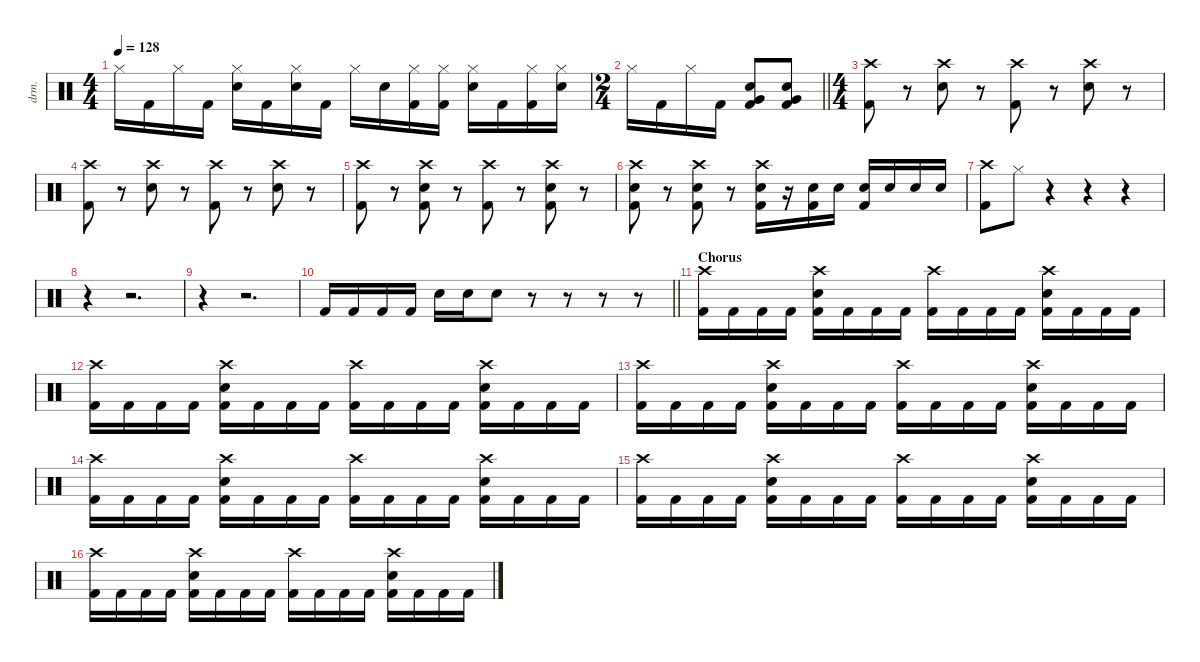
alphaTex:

\defaultSystemsLayout 4
\hideDynamics
\bracketExtendMode nobrackets
\otherSystemsTrackNameOrientation horizontal
\track ("Drums" "drm.") {instrument percussion}
\staff {score}
\articulation defaults
\ts (4 4)
\tempo 128
\clef neutral
\ks c "Hi-Hat (closed)".16{dy f beam Down} "Kick (hit) 2".16{beam Down} "Hi-Hat (closed)".16{beam Down} "Kick (hit) 2".16{beam Down}
("Hi-Hat (closed)" "Snare (hit) 2").16{beam Down} "Kick (hit) 2".16{beam Down} ("Hi-Hat (closed)" "Snare (hit) 2").16{beam Down} "Kick (hit) 2".16{beam Down} "Hi-Hat (closed)".16{beam Down} "Snare (hit) 2".16{beam Down} ("Hi-Hat (closed)" "Kick (hit) 2").16{beam Down} ("Hi-Hat (closed)" "Kick (hit) 2").16{beam Down} ("Hi-Hat (closed)" "Snare (hit) 2").16{beam Down} "Kick (hit) 2".16{beam Down} ("Hi-Hat (closed)" "Kick (hit) 2").16{beam Down} ("Hi-Hat (closed)" "Snare (hit) 2").16{beam Down} |
\ts (2 4)
\barLineRight lightlight "Hi-Hat (closed)".16{beam Down} "Kick (hit) 2".16{beam Down} "Hi-Hat (closed)".16{beam Down} "Kick (hit) 2".16{beam Down}
("Very Low Tom (hit)" "Snare (hit) 2" "Kick (hit) 2").8{beam Up} ("Very Low Tom (hit)" "Snare (hit) 2" "Kick (hit) 2").8{beam Up} |
\ts (4 4)
("Crash high (hit)" "Kick (hit) 2").8{beam Down} r.8{beam Down} ("Crash high (hit)" "Snare (hit) 2").8{beam Down} r.8{beam Down} ("Crash high (hit)" "Kick (hit) 2").8{beam Down} r.8{beam Down} ("Crash high (hit)" "Snare (hit) 2").8{beam Down} r.8{beam Down} |
("Crash high (hit)" "Kick (hit) 2").8{beam Down} r.8{beam Down} ("Crash high (hit)" "Snare (hit) 2").8{beam Down} r.8{beam Down} ("Crash high (hit)" "Kick (hit) 2").8{beam Down} r.8{beam Down} ("Crash high (hit)" "Snare (hit) 2").8{beam Down} r.8{beam Down} |
("Crash high (hit)" "Kick (hit) 2").8{beam Down} r.8{beam Down} ("Crash high (hit)" "Snare (hit) 2" "Kick (hit) 2").8{beam Down} r.8{beam Down} ("Crash high (hit)" "Kick (hit) 2").8{beam Down} r.8{beam Down} ("Crash high (hit)" "Snare (hit) 2" "Kick (hit) 2").8{beam Down} r.8{beam Down} |
("Crash high (hit)" "Snare (hit) 2" "Kick (hit) 2").8{beam Down} r.8{beam Down} ("Crash high (hit)" "Snare (hit) 2" "Kick (hit) 2").8{beam Down} r.8{beam Down} ("Crash high (hit)" "Snare (hit) 2" "Kick (hit) 2").16{beam Down} r.16{beam Down} ("Snare (hit) 2" "Kick (hit) 2").16{beam Down} "Snare (hit) 2".16{beam Down} ("Snare (hit) 2" "Kick (hit) 2").16{beam Up} "Snare (hit) 2".16{beam Up} "Snare (hit) 2".16{beam Up} "Snare (hit) 2".16{beam Up} |
("Crash high (hit)" "Kick (hit) 2").8{beam Down} "Hi-Hat (closed)".8{beam Down} r.4{beam Down} r.4{beam Down} r.4{beam Down} |
r.4{beam Down} r.2{d beam Down} |
r.4{beam Down} r.2{d beam Down} |
\barLineRight lightlight "Kick (hit) 2".16{beam Up} "Kick (hit) 2".16{beam Up} "Kick (hit) 2".16{beam Up} "Kick (hit) 2".16{beam Up} "Snare (hit) 2".16{beam Down} "Snare (hit) 2".16{beam Down} "Snare (hit) 2".8{beam Down}
r.8{beam Down} r.8{beam Down} r.8{beam Down} r.8{beam Down} |
\section ("" "Chorus")
("Crash high (hit)" "Kick (hit) 2").16{beam Down} "Kick (hit) 2".16{beam Down} "Kick (hit) 2".16{beam Down} "Kick (hit) 2".16{beam Down} ("Crash high (hit)" "Snare (hit) 2" "Kick (hit) 2").16{beam Down} "Kick (hit) 2".16{beam Down} "Kick (hit) 2".16{beam Down} "Kick (hit) 2".16{beam Down} ("Crash high (hit)" "Kick (hit) 2").16{beam Down} "Kick (hit) 2".16{beam Down} "Kick (hit) 2".16{beam Down} "Kick (hit) 2".16{beam Down} ("Crash high (hit)" "Snare (hit) 2" "Kick (hit) 2").16{beam Down} "Kick (hit) 2".16{beam Down} "Kick (hit) 2".16{beam Down} "Kick (hit) 2".16{beam Down} |
("Crash high (hit)" "Kick (hit) 2").16{beam Down} "Kick (hit) 2".16{beam Down} "Kick (hit) 2".16{beam Down} "Kick (hit) 2".16{beam Down} ("Crash high (hit)" "Snare (hit) 2" "Kick (hit) 2").16{beam Down} "Kick (hit) 2".16{beam Down} "Kick (hit) 2".16{beam Down} "Kick (hit) 2".16{beam Down} ("Crash high (hit)" "Kick (hit) 2").16{beam Down} "Kick (hit) 2".16{beam Down} "Kick (hit) 2".16{beam Down} "Kick (hit) 2".16{beam Down} ("Crash high (hit)" "Snare (hit) 2" "Kick (hit) 2").16{beam Down} "Kick (hit) 2".16{beam Down} "Kick (hit) 2".16{beam Down} "Kick (hit) 2".16{beam Down} |
("Crash high (hit)" "Kick (hit) 2").16{beam Down} "Kick (hit) 2".16{beam Down} "Kick (hit) 2".16{beam Down} "Kick (hit) 2".16{beam Down} ("Crash high (hit)" "Snare (hit) 2" "Kick (hit) 2").16{beam Down} "Kick (hit) 2".16{beam Down} "Kick (hit) 2".16{beam Down} "Kick (hit) 2".16{beam Down} ("Crash high (hit)" "Kick (hit) 2").16{beam Down} "Kick (hit) 2".16{beam Down} "Kick (hit) 2".16{beam Down} "Kick (hit) 2".16{beam Down} ("Crash high (hit)" "Snare (hit) 2" "Kick (hit) 2").16{beam Down} "Kick (hit) 2".16{beam Down} "Kick (hit) 2".16{beam Down} "Kick (hit) 2".16{beam Down} |
("Crash high (hit)" "Kick (hit) 2").16{beam Down} "Kick (hit) 2".16{beam Down} "Kick (hit) 2".16{beam Down} "Kick (hit) 2".16{beam Down} ("Crash high (hit)" "Snare (hit) 2" "Kick (hit) 2").16{beam Down} "Kick (hit) 2".16{beam Down} "Kick (hit) 2".16{beam Down} "Kick (hit) 2".16{beam Down} ("Crash high (hit)" "Kick (hit) 2").16{beam Down} "Kick (hit) 2".16{beam Down} "Kick (hit) 2".16{beam Down} "Kick (hit) 2".16{beam Down} ("Crash high (hit)" "Snare (hit) 2" "Kick (hit) 2").16{beam Down} "Kick (hit) 2".16{beam Down} "Kick (hit) 2".16{beam Down} "Kick (hit) 2".16{beam Down} |
("Crash high (hit)" "Kick (hit) 2").16{beam Down} "Kick (hit) 2".16{beam Down} "Kick (hit) 2".16{beam Down} "Kick (hit) 2".16{beam Down} ("Crash high (hit)" "Snare (hit) 2" "Kick (hit) 2").16{beam Down} "Kick (hit) 2".16{beam Down} "Kick (hit) 2".16{beam Down} "Kick (hit) 2".16{beam Down} ("Crash high (hit)" "Kick (hit) 2").16{beam Down} "Kick (hit) 2".16{beam Down} "Kick (hit) 2".16{beam Down} "Kick (hit) 2".16{beam Down} ("Crash high (hit)" "Snare (hit) 2" "Kick (hit) 2").16{beam Down} "Kick (hit) 2".16{beam Down} "Kick (hit) 2".16{beam Down} "Kick (hit) 2".16{beam Down} |
("Crash high (hit)" "Kick (hit) 2").16{beam Down} "Kick (hit) 2".16{beam Down} "Kick (hit) 2".16{beam Down} "Kick (hit) 2".16{beam Down} ("Crash high (hit)" "Snare (hit) 2" "Kick (hit) 2").16{beam Down} "Kick (hit) 2".16{beam Down} "Kick (hit) 2".16{beam Down} "Kick (hit) 2".16{beam Down} ("Crash high (hit)" "Kick (hit) 2").16{beam Down} "Kick (hit) 2".16{beam Down} "Kick (hit) 2".16{beam Down} "Kick (hit) 2".16{beam Down} ("Crash high (hit)" "Snare (hit) 2" "Kick (hit) 2").16{beam Down} "Kick (hit) 2".16{beam Down} "Kick (hit) 2".16{beam Down} "Kick (hit) 2".16{beam Down}
